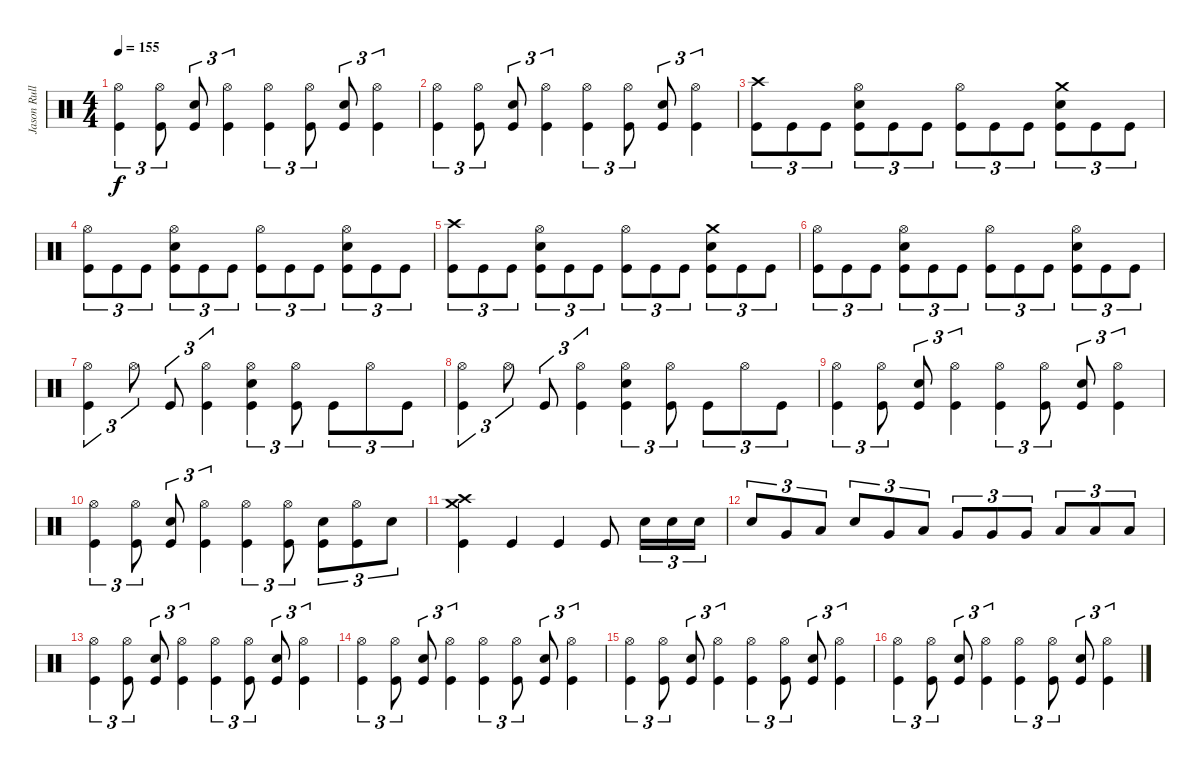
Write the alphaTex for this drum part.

\track ("Jason Rullo - BATTERIE" "Jason Rull") {instrument percussion}
\staff {score}
\articulation defaults
\ts (4 4)
\tempo 155
\clef neutral
\ks c
("Hi-Hat (open)" "Kick (hit)").4{tu (3 2) dy f} ("Hi-Hat (open)" "Kick (hit)").8{tu (3 2)} ("Snare (hit) 2" "Kick (hit)").8{tu (3 2)} ("Hi-Hat (open)" "Kick (hit)").4{tu (3 2)} ("Hi-Hat (open)" "Kick (hit)").4{tu (3 2)} ("Hi-Hat (open)" "Kick (hit)").8{tu (3 2)} ("Snare (hit) 2" "Kick (hit)").8{tu (3 2)} ("Hi-Hat (open)" "Kick (hit)").4{tu (3 2)} |
("Hi-Hat (open)" "Kick (hit)").4{tu (3 2)} ("Hi-Hat (open)" "Kick (hit)").8{tu (3 2)} ("Snare (hit) 2" "Kick (hit)").8{tu (3 2)} ("Hi-Hat (open)" "Kick (hit)").4{tu (3 2)} ("Hi-Hat (open)" "Kick (hit)").4{tu (3 2)} ("Hi-Hat (open)" "Kick (hit)").8{tu (3 2)} ("Snare (hit) 2" "Kick (hit)").8{tu (3 2)} ("Hi-Hat (open)" "Kick (hit)").4{tu (3 2)} |
("Crash high (hit)" "Kick (hit)").8{tu (3 2)} "Kick (hit)".8{tu (3 2)} "Kick (hit)".8{tu (3 2)} ("Hi-Hat (open)" "Snare (hit) 2" "Kick (hit)").8{tu (3 2)} "Kick (hit)".8{tu (3 2)} "Kick (hit)".8{tu (3 2)} ("Hi-Hat (open)" "Kick (hit)").8{tu (3 2)} "Kick (hit)".8{tu (3 2)} "Kick (hit)".8{tu (3 2)} ("Crash medium (hit)" "Snare (hit) 2" "Kick (hit)").8{tu (3 2)} "Kick (hit)".8{tu (3 2)} "Kick (hit)".8{tu (3 2)} |
("Hi-Hat (open)" "Kick (hit)").8{tu (3 2)} "Kick (hit)".8{tu (3 2)} "Kick (hit)".8{tu (3 2)} ("Hi-Hat (open)" "Snare (hit) 2" "Kick (hit)").8{tu (3 2)} "Kick (hit)".8{tu (3 2)} "Kick (hit)".8{tu (3 2)} ("Hi-Hat (open)" "Kick (hit)").8{tu (3 2)} "Kick (hit)".8{tu (3 2)} "Kick (hit)".8{tu (3 2)} ("Hi-Hat (open)" "Snare (hit) 2" "Kick (hit)").8{tu (3 2)} "Kick (hit)".8{tu (3 2)} "Kick (hit)".8{tu (3 2)} |
("Crash high (hit)" "Kick (hit)").8{tu (3 2)} "Kick (hit)".8{tu (3 2)} "Kick (hit)".8{tu (3 2)} ("Hi-Hat (open)" "Snare (hit) 2" "Kick (hit)").8{tu (3 2)} "Kick (hit)".8{tu (3 2)} "Kick (hit)".8{tu (3 2)} ("Hi-Hat (open)" "Kick (hit)").8{tu (3 2)} "Kick (hit)".8{tu (3 2)} "Kick (hit)".8{tu (3 2)} ("Crash medium (hit)" "Snare (hit) 2" "Kick (hit)").8{tu (3 2)} "Kick (hit)".8{tu (3 2)} "Kick (hit)".8{tu (3 2)} |
("Hi-Hat (open)" "Kick (hit)").8{tu (3 2)} "Kick (hit)".8{tu (3 2)} "Kick (hit)".8{tu (3 2)} ("Hi-Hat (open)" "Snare (hit) 2" "Kick (hit)").8{tu (3 2)} "Kick (hit)".8{tu (3 2)} "Kick (hit)".8{tu (3 2)} ("Hi-Hat (open)" "Kick (hit)").8{tu (3 2)} "Kick (hit)".8{tu (3 2)} "Kick (hit)".8{tu (3 2)} ("Hi-Hat (open)" "Snare (hit) 2" "Kick (hit)").8{tu (3 2)} "Kick (hit)".8{tu (3 2)} "Kick (hit)".8{tu (3 2)} |
("Hi-Hat (open)" "Kick (hit)").4{tu (3 2)} "Hi-Hat (open)".8{tu (3 2)} "Kick (hit)".8{tu (3 2)} ("Hi-Hat (open)" "Kick (hit)").4{tu (3 2)} ("Hi-Hat (open)" "Snare (hit) 2" "Kick (hit)").4{tu (3 2)} ("Hi-Hat (open)" "Kick (hit)").8{tu (3 2)} "Kick (hit)".8{tu (3 2)} "Hi-Hat (open)".8{tu (3 2)} "Kick (hit)".8{tu (3 2)} |
("Hi-Hat (open)" "Kick (hit)").4{tu (3 2)} "Hi-Hat (open)".8{tu (3 2)} "Kick (hit)".8{tu (3 2)} ("Hi-Hat (open)" "Kick (hit)").4{tu (3 2)} ("Hi-Hat (open)" "Snare (hit) 2" "Kick (hit)").4{tu (3 2)} ("Hi-Hat (open)" "Kick (hit)").8{tu (3 2)} "Kick (hit)".8{tu (3 2)} "Hi-Hat (open)".8{tu (3 2)} "Kick (hit)".8{tu (3 2)} |
("Hi-Hat (open)" "Kick (hit)").4{tu (3 2)} ("Hi-Hat (open)" "Kick (hit)").8{tu (3 2)} ("Snare (hit) 2" "Kick (hit)").8{tu (3 2)} ("Hi-Hat (open)" "Kick (hit)").4{tu (3 2)} ("Hi-Hat (open)" "Kick (hit)").4{tu (3 2)} ("Hi-Hat (open)" "Kick (hit)").8{tu (3 2)} ("Snare (hit) 2" "Kick (hit)").8{tu (3 2)} ("Hi-Hat (open)" "Kick (hit)").4{tu (3 2)} |
("Hi-Hat (open)" "Kick (hit)").4{tu (3 2)} ("Hi-Hat (open)" "Kick (hit)").8{tu (3 2)} ("Snare (hit) 2" "Kick (hit)").8{tu (3 2)} ("Hi-Hat (open)" "Kick (hit)").4{tu (3 2)} ("Hi-Hat (open)" "Kick (hit)").4{tu (3 2)} ("Hi-Hat (open)" "Kick (hit)").8{tu (3 2)} ("Snare (hit) 2" "Kick (hit)").8{tu (3 2)} ("Hi-Hat (open)" "Kick (hit)").8{tu (3 2)} "Snare (hit) 2".8{tu (3 2)} |
("Crash medium (hit)" "Crash high (hit)" "Kick (hit)").4 "Kick (hit)".4 "Kick (hit)".4 "Kick (hit)".8 "Snare (hit) 2".16{tu (3 2)} "Snare (hit) 2".16{tu (3 2)} "Snare (hit) 2".16{tu (3 2)} |
"Snare (hit) 2".8{tu (3 2)} "Very Low Tom (hit)".8{tu (3 2)} "Low Tom (hit)".8{tu (3 2)} "Snare (hit) 2".8{tu (3 2)} "Very Low Tom (hit)".8{tu (3 2)} "Low Tom (hit)".8{tu (3 2)} "Very Low Tom (hit)".8{tu (3 2)} "Very Low Tom (hit)".8{tu (3 2)} "Very Low Tom (hit)".8{tu (3 2)} "Low Floor Tom (hit)".8{tu (3 2)} "Low Floor Tom (hit)".8{tu (3 2)} "Low Floor Tom (hit)".8{tu (3 2)} |
("Hi-Hat (open)" "Kick (hit)").4{tu (3 2)} ("Hi-Hat (open)" "Kick (hit)").8{tu (3 2)} ("Snare (hit) 2" "Kick (hit)").8{tu (3 2)} ("Hi-Hat (open)" "Kick (hit)").4{tu (3 2)} ("Hi-Hat (open)" "Kick (hit)").4{tu (3 2)} ("Hi-Hat (open)" "Kick (hit)").8{tu (3 2)} ("Snare (hit) 2" "Kick (hit)").8{tu (3 2)} ("Hi-Hat (open)" "Kick (hit)").4{tu (3 2)} |
("Hi-Hat (open)" "Kick (hit)").4{tu (3 2)} ("Hi-Hat (open)" "Kick (hit)").8{tu (3 2)} ("Snare (hit) 2" "Kick (hit)").8{tu (3 2)} ("Hi-Hat (open)" "Kick (hit)").4{tu (3 2)} ("Hi-Hat (open)" "Kick (hit)").4{tu (3 2)} ("Hi-Hat (open)" "Kick (hit)").8{tu (3 2)} ("Snare (hit) 2" "Kick (hit)").8{tu (3 2)} ("Hi-Hat (open)" "Kick (hit)").4{tu (3 2)} |
("Hi-Hat (open)" "Kick (hit)").4{tu (3 2)} ("Hi-Hat (open)" "Kick (hit)").8{tu (3 2)} ("Snare (hit) 2" "Kick (hit)").8{tu (3 2)} ("Hi-Hat (open)" "Kick (hit)").4{tu (3 2)} ("Hi-Hat (open)" "Kick (hit)").4{tu (3 2)} ("Hi-Hat (open)" "Kick (hit)").8{tu (3 2)} ("Snare (hit) 2" "Kick (hit)").8{tu (3 2)} ("Hi-Hat (open)" "Kick (hit)").4{tu (3 2)} |
("Hi-Hat (open)" "Kick (hit)").4{tu (3 2)} ("Hi-Hat (open)" "Kick (hit)").8{tu (3 2)} ("Snare (hit) 2" "Kick (hit)").8{tu (3 2)} ("Hi-Hat (open)" "Kick (hit)").4{tu (3 2)} ("Hi-Hat (open)" "Kick (hit)").4{tu (3 2)} ("Hi-Hat (open)" "Kick (hit)").8{tu (3 2)} ("Snare (hit) 2" "Kick (hit)").8{tu (3 2)} ("Hi-Hat (open)" "Kick (hit)").4{tu (3 2)}
